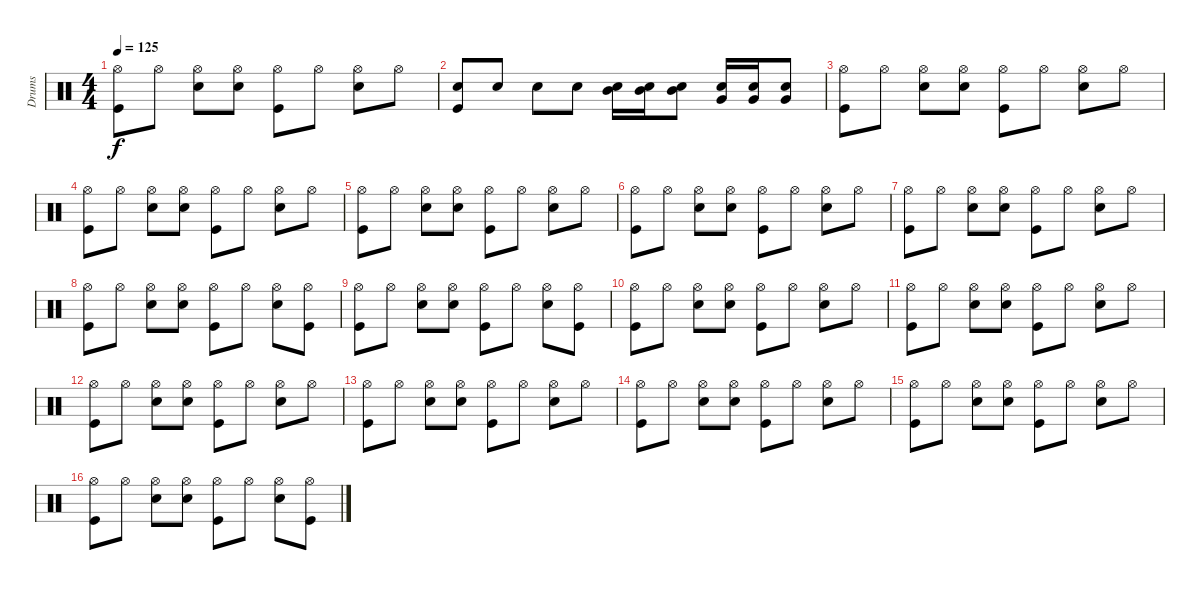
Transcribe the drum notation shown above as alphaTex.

\track ("Drums" "Drums") {instrument percussion}
\staff {score}
\articulation defaults
\ts (4 4)
\tempo 125
\clef neutral
\ks c
("Hi-Hat (open)" "Kick (hit)").8{dy f} "Hi-Hat (open)".8 ("Hi-Hat (open)" "Snare (hit) 2").8 ("Hi-Hat (open)" "Snare (hit) 2").8 ("Hi-Hat (open)" "Kick (hit)").8 "Hi-Hat (open)".8 ("Hi-Hat (open)" "Snare (hit) 2").8 "Hi-Hat (open)".8 |
("Kick (hit)" "Snare (hit) 2").8 "Snare (hit) 2".8 "Snare (hit) 2".8 "Snare (hit) 2".8 ("Snare (hit) 2" "Mid Tom (hit)").16 ("Snare (hit) 2" "Mid Tom (hit)").16 ("Snare (hit) 2" "Mid Tom (hit)").8 ("Very Low Tom (hit)" "Snare (hit) 2").16 ("Very Low Tom (hit)" "Snare (hit) 2").16 ("Snare (hit) 2" "Very Low Tom (hit)").8 |
("Kick (hit)" "Hi-Hat (open)").8 "Hi-Hat (open)".8 ("Hi-Hat (open)" "Snare (hit) 2").8 ("Hi-Hat (open)" "Snare (hit) 2").8 ("Hi-Hat (open)" "Kick (hit)").8 "Hi-Hat (open)".8 ("Hi-Hat (open)" "Snare (hit) 2").8 "Hi-Hat (open)".8 |
("Kick (hit)" "Hi-Hat (open)").8 "Hi-Hat (open)".8 ("Hi-Hat (open)" "Snare (hit) 2").8 ("Hi-Hat (open)" "Snare (hit) 2").8 ("Hi-Hat (open)" "Kick (hit)").8 "Hi-Hat (open)".8 ("Hi-Hat (open)" "Snare (hit) 2").8 "Hi-Hat (open)".8 |
("Kick (hit)" "Hi-Hat (open)").8 "Hi-Hat (open)".8 ("Hi-Hat (open)" "Snare (hit) 2").8 ("Hi-Hat (open)" "Snare (hit) 2").8 ("Hi-Hat (open)" "Kick (hit)").8 "Hi-Hat (open)".8 ("Hi-Hat (open)" "Snare (hit) 2").8 "Hi-Hat (open)".8 |
("Kick (hit)" "Hi-Hat (open)").8 "Hi-Hat (open)".8 ("Hi-Hat (open)" "Snare (hit) 2").8 ("Hi-Hat (open)" "Snare (hit) 2").8 ("Hi-Hat (open)" "Kick (hit)").8 "Hi-Hat (open)".8 ("Hi-Hat (open)" "Snare (hit) 2").8 "Hi-Hat (open)".8 |
("Hi-Hat (open)" "Kick (hit)").8 "Hi-Hat (open)".8 ("Hi-Hat (open)" "Snare (hit) 2").8 ("Hi-Hat (open)" "Snare (hit) 2").8 ("Hi-Hat (open)" "Kick (hit)").8 "Hi-Hat (open)".8 ("Hi-Hat (open)" "Snare (hit) 2").8 "Hi-Hat (open)".8 |
("Kick (hit)" "Hi-Hat (open)").8 "Hi-Hat (open)".8 ("Hi-Hat (open)" "Snare (hit) 2").8 ("Hi-Hat (open)" "Snare (hit) 2").8 ("Hi-Hat (open)" "Kick (hit)").8 "Hi-Hat (open)".8 ("Hi-Hat (open)" "Snare (hit) 2").8 ("Hi-Hat (open)" "Kick (hit)").8 |
("Hi-Hat (open)" "Kick (hit)").8 "Hi-Hat (open)".8 ("Hi-Hat (open)" "Snare (hit) 2").8 ("Hi-Hat (open)" "Snare (hit) 2").8 ("Hi-Hat (open)" "Kick (hit)").8 "Hi-Hat (open)".8 ("Hi-Hat (open)" "Snare (hit) 2").8 ("Hi-Hat (open)" "Kick (hit)").8 |
("Kick (hit)" "Hi-Hat (open)").8 "Hi-Hat (open)".8 ("Hi-Hat (open)" "Snare (hit) 2").8 ("Hi-Hat (open)" "Snare (hit) 2").8 ("Hi-Hat (open)" "Kick (hit)").8 "Hi-Hat (open)".8 ("Hi-Hat (open)" "Snare (hit) 2").8 "Hi-Hat (open)".8 |
("Kick (hit)" "Hi-Hat (open)").8 "Hi-Hat (open)".8 ("Hi-Hat (open)" "Snare (hit) 2").8 ("Hi-Hat (open)" "Snare (hit) 2").8 ("Hi-Hat (open)" "Kick (hit)").8 "Hi-Hat (open)".8 ("Hi-Hat (open)" "Snare (hit) 2").8 "Hi-Hat (open)".8 |
("Kick (hit)" "Hi-Hat (open)").8 "Hi-Hat (open)".8 ("Hi-Hat (open)" "Snare (hit) 2").8 ("Hi-Hat (open)" "Snare (hit) 2").8 ("Hi-Hat (open)" "Kick (hit)").8 "Hi-Hat (open)".8 ("Hi-Hat (open)" "Snare (hit) 2").8 "Hi-Hat (open)".8 |
("Kick (hit)" "Hi-Hat (open)").8 "Hi-Hat (open)".8 ("Hi-Hat (open)" "Snare (hit) 2").8 ("Hi-Hat (open)" "Snare (hit) 2").8 ("Hi-Hat (open)" "Kick (hit)").8 "Hi-Hat (open)".8 ("Hi-Hat (open)" "Snare (hit) 2").8 "Hi-Hat (open)".8 |
("Hi-Hat (open)" "Kick (hit)").8 "Hi-Hat (open)".8 ("Hi-Hat (open)" "Snare (hit) 2").8 ("Hi-Hat (open)" "Snare (hit) 2").8 ("Hi-Hat (open)" "Kick (hit)").8 "Hi-Hat (open)".8 ("Hi-Hat (open)" "Snare (hit) 2").8 "Hi-Hat (open)".8 |
("Kick (hit)" "Hi-Hat (open)").8 "Hi-Hat (open)".8 ("Hi-Hat (open)" "Snare (hit) 2").8 ("Hi-Hat (open)" "Snare (hit) 2").8 ("Hi-Hat (open)" "Kick (hit)").8 "Hi-Hat (open)".8 ("Hi-Hat (open)" "Snare (hit) 2").8 "Hi-Hat (open)".8 |
("Kick (hit)" "Hi-Hat (open)").8 "Hi-Hat (open)".8 ("Hi-Hat (open)" "Snare (hit) 2").8 ("Hi-Hat (open)" "Snare (hit) 2").8 ("Hi-Hat (open)" "Kick (hit)").8 "Hi-Hat (open)".8 ("Hi-Hat (open)" "Snare (hit) 2").8 ("Hi-Hat (open)" "Kick (hit)").8
